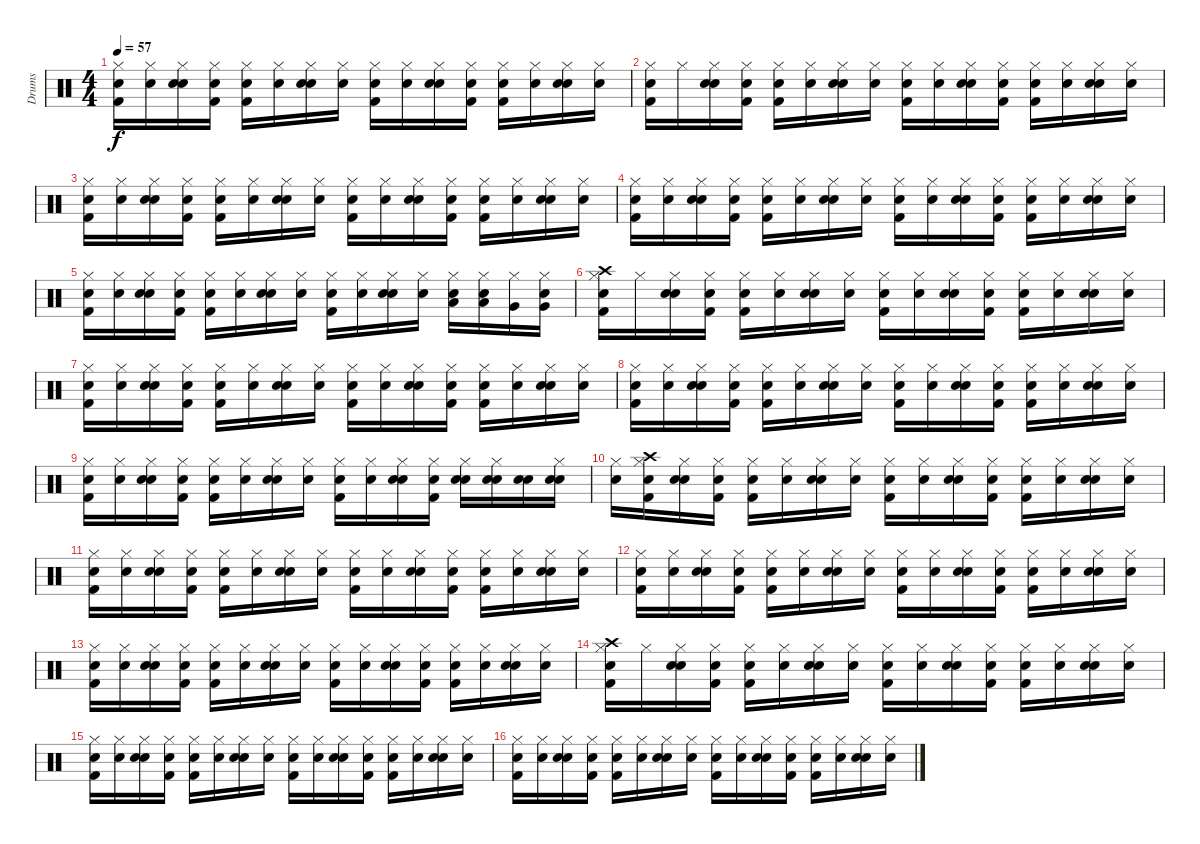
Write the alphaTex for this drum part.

\track ("Drums" "Drums") {instrument percussion}
\staff {score}
\articulation defaults
\ts (4 4)
\tempo 57
\clef neutral
\ks c
("Snare (hit)" "Kick (hit) 2" "Hi-Hat (closed)").16{dy f} ("Snare (hit)" "Hi-Hat (closed)").16 ("Snare (hit)" "Snare (hit) 2" "Hi-Hat (closed)").16 ("Snare (hit)" "Kick (hit) 2" "Hi-Hat (closed)").16 ("Snare (hit)" "Hi-Hat (closed)" "Kick (hit) 2").16 ("Snare (hit)" "Hi-Hat (closed)").16 ("Snare (hit)" "Snare (hit) 2" "Hi-Hat (closed)").16 ("Snare (hit)" "Hi-Hat (closed)").16 ("Snare (hit)" "Kick (hit) 2" "Hi-Hat (closed)").16 ("Snare (hit)" "Hi-Hat (closed)").16 ("Snare (hit)" "Snare (hit) 2" "Hi-Hat (closed)").16 ("Snare (hit)" "Kick (hit) 2" "Hi-Hat (closed)").16 ("Snare (hit)" "Kick (hit) 2" "Hi-Hat (closed)").16 ("Snare (hit)" "Hi-Hat (closed)").16 ("Snare (hit)" "Snare (hit) 2" "Hi-Hat (closed)").16 ("Snare (hit)" "Hi-Hat (closed)").16 |
("Snare (hit)" "Kick (hit) 2" "Hi-Hat (closed)").16 "Hi-Hat (closed)".16 ("Snare (hit)" "Snare (hit) 2" "Hi-Hat (closed)").16 ("Snare (hit)" "Kick (hit) 2" "Hi-Hat (closed)").16 ("Snare (hit)" "Hi-Hat (closed)" "Kick (hit) 2").16 ("Snare (hit)" "Hi-Hat (closed)").16 ("Snare (hit)" "Snare (hit) 2" "Hi-Hat (closed)").16 ("Snare (hit)" "Hi-Hat (closed)").16 ("Snare (hit)" "Kick (hit) 2" "Hi-Hat (closed)").16 ("Snare (hit)" "Hi-Hat (closed)").16 ("Snare (hit)" "Snare (hit) 2" "Hi-Hat (closed)").16 ("Snare (hit)" "Kick (hit) 2" "Hi-Hat (closed)").16 ("Snare (hit)" "Kick (hit) 2" "Hi-Hat (closed)").16 ("Snare (hit)" "Hi-Hat (closed)").16 ("Snare (hit)" "Snare (hit) 2" "Hi-Hat (closed)").16 ("Snare (hit)" "Hi-Hat (closed)").16 |
("Snare (hit)" "Kick (hit) 2" "Hi-Hat (closed)").16 ("Snare (hit)" "Hi-Hat (closed)").16 ("Snare (hit)" "Snare (hit) 2" "Hi-Hat (closed)").16 ("Snare (hit)" "Kick (hit) 2" "Hi-Hat (closed)").16 ("Snare (hit)" "Hi-Hat (closed)" "Kick (hit) 2").16 ("Snare (hit)" "Hi-Hat (closed)").16 ("Snare (hit)" "Snare (hit) 2" "Hi-Hat (closed)").16 ("Snare (hit)" "Hi-Hat (closed)").16 ("Snare (hit)" "Kick (hit) 2" "Hi-Hat (closed)").16 ("Snare (hit)" "Hi-Hat (closed)").16 ("Snare (hit)" "Snare (hit) 2" "Hi-Hat (closed)").16 ("Snare (hit)" "Kick (hit) 2" "Hi-Hat (closed)").16 ("Snare (hit)" "Kick (hit) 2" "Hi-Hat (closed)").16 ("Snare (hit)" "Hi-Hat (closed)").16 ("Snare (hit)" "Snare (hit) 2" "Hi-Hat (closed)").16 ("Snare (hit)" "Hi-Hat (closed)").16 |
("Snare (hit)" "Kick (hit) 2" "Hi-Hat (closed)").16 ("Snare (hit)" "Hi-Hat (closed)").16 ("Snare (hit)" "Snare (hit) 2" "Hi-Hat (closed)").16 ("Snare (hit)" "Kick (hit) 2" "Hi-Hat (closed)").16 ("Snare (hit)" "Hi-Hat (closed)" "Kick (hit) 2").16 ("Snare (hit)" "Hi-Hat (closed)").16 ("Snare (hit)" "Snare (hit) 2" "Hi-Hat (closed)").16 ("Snare (hit)" "Hi-Hat (closed)").16 ("Snare (hit)" "Kick (hit) 2" "Hi-Hat (closed)").16 ("Snare (hit)" "Hi-Hat (closed)").16 ("Snare (hit)" "Snare (hit) 2" "Hi-Hat (closed)").16 ("Snare (hit)" "Kick (hit) 2" "Hi-Hat (closed)").16 ("Snare (hit)" "Kick (hit) 2" "Hi-Hat (closed)").16 ("Snare (hit)" "Hi-Hat (closed)").16 ("Snare (hit)" "Snare (hit) 2" "Hi-Hat (closed)").16 ("Snare (hit)" "Hi-Hat (closed)").16 |
("Snare (hit)" "Kick (hit) 2" "Hi-Hat (closed)").16 ("Snare (hit)" "Hi-Hat (closed)").16 ("Snare (hit)" "Snare (hit) 2" "Hi-Hat (closed)").16 ("Snare (hit)" "Kick (hit) 2" "Hi-Hat (closed)").16 ("Snare (hit)" "Hi-Hat (closed)" "Kick (hit) 2").16 ("Snare (hit)" "Hi-Hat (closed)").16 ("Snare (hit)" "Snare (hit) 2" "Hi-Hat (closed)").16 ("Snare (hit)" "Hi-Hat (closed)").16 ("Snare (hit)" "Kick (hit) 2" "Hi-Hat (closed)").16 ("Snare (hit)" "Hi-Hat (closed)").16 ("Snare (hit)" "Snare (hit) 2" "Hi-Hat (closed)").16 ("Snare (hit)" "Hi-Hat (closed)").16 ("Snare (hit)" "Low Tom (hit)" "Hi-Hat (closed)").16 ("Snare (hit)" "Hi-Hat (closed)" "Low Tom (hit)").16 ("Very Low Tom (hit)" "Hi-Hat (closed)").16 ("Snare (hit)" "Very Low Tom (hit)" "Hi-Hat (closed)").16 |
("Snare (hit)" "Kick (hit) 2" "Crash high (hit)" "Hi-Hat (closed)").16 "Hi-Hat (closed)".16 ("Snare (hit)" "Snare (hit) 2" "Hi-Hat (closed)").16 ("Snare (hit)" "Kick (hit) 2" "Hi-Hat (closed)").16 ("Snare (hit)" "Hi-Hat (closed)" "Kick (hit) 2").16 ("Snare (hit)" "Hi-Hat (closed)").16 ("Snare (hit)" "Snare (hit) 2" "Hi-Hat (closed)").16 ("Snare (hit)" "Hi-Hat (closed)").16 ("Snare (hit)" "Kick (hit) 2" "Hi-Hat (closed)").16 ("Snare (hit)" "Hi-Hat (closed)").16 ("Snare (hit)" "Snare (hit) 2" "Hi-Hat (closed)").16 ("Snare (hit)" "Kick (hit) 2" "Hi-Hat (closed)").16 ("Snare (hit)" "Kick (hit) 2" "Hi-Hat (closed)").16 ("Snare (hit)" "Hi-Hat (closed)").16 ("Snare (hit)" "Snare (hit) 2" "Hi-Hat (closed)").16 ("Snare (hit)" "Hi-Hat (closed)").16 |
("Snare (hit)" "Kick (hit) 2" "Hi-Hat (closed)").16 ("Snare (hit)" "Hi-Hat (closed)").16 ("Snare (hit)" "Snare (hit) 2" "Hi-Hat (closed)").16 ("Snare (hit)" "Kick (hit) 2" "Hi-Hat (closed)").16 ("Snare (hit)" "Hi-Hat (closed)" "Kick (hit) 2").16 ("Snare (hit)" "Hi-Hat (closed)").16 ("Snare (hit)" "Snare (hit) 2" "Hi-Hat (closed)").16 ("Snare (hit)" "Hi-Hat (closed)").16 ("Snare (hit)" "Kick (hit) 2" "Hi-Hat (closed)").16 ("Snare (hit)" "Hi-Hat (closed)").16 ("Snare (hit)" "Snare (hit) 2" "Hi-Hat (closed)").16 ("Snare (hit)" "Kick (hit) 2" "Hi-Hat (closed)").16 ("Snare (hit)" "Kick (hit) 2" "Hi-Hat (closed)").16 ("Snare (hit)" "Hi-Hat (closed)").16 ("Snare (hit)" "Snare (hit) 2" "Hi-Hat (closed)").16 ("Snare (hit)" "Hi-Hat (closed)").16 |
("Snare (hit)" "Kick (hit) 2" "Hi-Hat (closed)").16 ("Snare (hit)" "Hi-Hat (closed)").16 ("Snare (hit)" "Snare (hit) 2" "Hi-Hat (closed)").16 ("Snare (hit)" "Kick (hit) 2" "Hi-Hat (closed)").16 ("Snare (hit)" "Hi-Hat (closed)" "Kick (hit) 2").16 ("Snare (hit)" "Hi-Hat (closed)").16 ("Snare (hit)" "Snare (hit) 2" "Hi-Hat (closed)").16 ("Snare (hit)" "Hi-Hat (closed)").16 ("Snare (hit)" "Kick (hit) 2" "Hi-Hat (closed)").16 ("Snare (hit)" "Hi-Hat (closed)").16 ("Snare (hit)" "Snare (hit) 2" "Hi-Hat (closed)").16 ("Snare (hit)" "Kick (hit) 2" "Hi-Hat (closed)").16 ("Snare (hit)" "Kick (hit) 2" "Hi-Hat (closed)").16 ("Snare (hit)" "Hi-Hat (closed)").16 ("Snare (hit)" "Snare (hit) 2" "Hi-Hat (closed)").16 ("Snare (hit)" "Hi-Hat (closed)").16 |
("Snare (hit)" "Kick (hit) 2" "Hi-Hat (closed)").16 ("Snare (hit)" "Hi-Hat (closed)").16 ("Snare (hit)" "Snare (hit) 2" "Hi-Hat (closed)").16 ("Snare (hit)" "Kick (hit) 2" "Hi-Hat (closed)").16 ("Snare (hit)" "Hi-Hat (closed)" "Kick (hit) 2").16 ("Snare (hit)" "Hi-Hat (closed)").16 ("Snare (hit)" "Snare (hit) 2" "Hi-Hat (closed)").16 ("Snare (hit)" "Hi-Hat (closed)").16 ("Snare (hit)" "Kick (hit) 2" "Hi-Hat (closed)").16 ("Snare (hit)" "Hi-Hat (closed)").16 ("Snare (hit)" "Snare (hit) 2" "Hi-Hat (closed)").16 ("Snare (hit)" "Kick (hit) 2" "Hi-Hat (closed)").16 ("Snare (hit)" "Snare (hit) 2" "Hi-Hat (closed)").16 ("Snare (hit)" "Snare (hit) 2" "Hi-Hat (closed)").16 ("Snare (hit)" "Snare (hit) 2").16 ("Snare (hit)" "Hi-Hat (closed)" "Snare (hit) 2").16 |
("Snare (hit)" "Hi-Hat (closed)").16 ("Snare (hit)" "Kick (hit) 2" "Crash high (hit)" "Hi-Hat (closed)").16 ("Snare (hit)" "Snare (hit) 2" "Hi-Hat (closed)").16 ("Snare (hit)" "Kick (hit) 2" "Hi-Hat (closed)").16 ("Snare (hit)" "Hi-Hat (closed)" "Kick (hit) 2").16 ("Snare (hit)" "Hi-Hat (closed)").16 ("Snare (hit)" "Snare (hit) 2" "Hi-Hat (closed)").16 ("Snare (hit)" "Hi-Hat (closed)").16 ("Snare (hit)" "Kick (hit) 2" "Hi-Hat (closed)").16 ("Snare (hit)" "Hi-Hat (closed)").16 ("Snare (hit)" "Snare (hit) 2" "Hi-Hat (closed)").16 ("Snare (hit)" "Kick (hit) 2" "Hi-Hat (closed)").16 ("Snare (hit)" "Kick (hit) 2" "Hi-Hat (closed)").16 ("Snare (hit)" "Hi-Hat (closed)").16 ("Snare (hit)" "Snare (hit) 2" "Hi-Hat (closed)").16 ("Snare (hit)" "Hi-Hat (closed)").16 |
("Snare (hit)" "Kick (hit) 2" "Hi-Hat (closed)").16 ("Snare (hit)" "Hi-Hat (closed)").16 ("Snare (hit)" "Snare (hit) 2" "Hi-Hat (closed)").16 ("Snare (hit)" "Kick (hit) 2" "Hi-Hat (closed)").16 ("Snare (hit)" "Hi-Hat (closed)" "Kick (hit) 2").16 ("Snare (hit)" "Hi-Hat (closed)").16 ("Snare (hit)" "Snare (hit) 2" "Hi-Hat (closed)").16 ("Snare (hit)" "Hi-Hat (closed)").16 ("Snare (hit)" "Kick (hit) 2" "Hi-Hat (closed)").16 ("Snare (hit)" "Hi-Hat (closed)").16 ("Snare (hit)" "Snare (hit) 2" "Hi-Hat (closed)").16 ("Snare (hit)" "Kick (hit) 2" "Hi-Hat (closed)").16 ("Snare (hit)" "Kick (hit) 2" "Hi-Hat (closed)").16 ("Snare (hit)" "Hi-Hat (closed)").16 ("Snare (hit)" "Snare (hit) 2" "Hi-Hat (closed)").16 ("Snare (hit)" "Hi-Hat (closed)").16 |
("Snare (hit)" "Kick (hit) 2" "Hi-Hat (closed)").16 ("Snare (hit)" "Hi-Hat (closed)").16 ("Snare (hit)" "Snare (hit) 2" "Hi-Hat (closed)").16 ("Snare (hit)" "Kick (hit) 2" "Hi-Hat (closed)").16 ("Snare (hit)" "Hi-Hat (closed)" "Kick (hit) 2").16 ("Snare (hit)" "Hi-Hat (closed)").16 ("Snare (hit)" "Snare (hit) 2" "Hi-Hat (closed)").16 ("Snare (hit)" "Hi-Hat (closed)").16 ("Snare (hit)" "Kick (hit) 2" "Hi-Hat (closed)").16 ("Snare (hit)" "Hi-Hat (closed)").16 ("Snare (hit)" "Snare (hit) 2" "Hi-Hat (closed)").16 ("Snare (hit)" "Kick (hit) 2" "Hi-Hat (closed)").16 ("Snare (hit)" "Kick (hit) 2" "Hi-Hat (closed)").16 ("Snare (hit)" "Hi-Hat (closed)").16 ("Snare (hit)" "Snare (hit) 2" "Hi-Hat (closed)").16 ("Snare (hit)" "Hi-Hat (closed)").16 |
("Snare (hit)" "Kick (hit) 2" "Hi-Hat (closed)").16 ("Snare (hit)" "Hi-Hat (closed)").16 ("Snare (hit)" "Snare (hit) 2" "Hi-Hat (closed)").16 ("Snare (hit)" "Kick (hit) 2" "Hi-Hat (closed)").16 ("Snare (hit)" "Hi-Hat (closed)" "Kick (hit) 2").16 ("Snare (hit)" "Hi-Hat (closed)").16 ("Snare (hit)" "Snare (hit) 2" "Hi-Hat (closed)").16 ("Snare (hit)" "Hi-Hat (closed)").16 ("Snare (hit)" "Kick (hit) 2" "Hi-Hat (closed)").16 ("Snare (hit)" "Hi-Hat (closed)").16 ("Snare (hit)" "Snare (hit) 2" "Hi-Hat (closed)").16 ("Snare (hit)" "Kick (hit) 2" "Hi-Hat (closed)").16 ("Snare (hit)" "Kick (hit) 2" "Hi-Hat (closed)").16 ("Snare (hit)" "Hi-Hat (closed)").16 ("Snare (hit)" "Snare (hit) 2" "Hi-Hat (closed)").16 ("Snare (hit)" "Hi-Hat (closed)").16 |
("Snare (hit)" "Kick (hit) 2" "Crash high (hit)" "Hi-Hat (closed)").16 "Hi-Hat (closed)".16 ("Snare (hit)" "Snare (hit) 2" "Hi-Hat (closed)").16 ("Snare (hit)" "Kick (hit) 2" "Hi-Hat (closed)").16 ("Snare (hit)" "Hi-Hat (closed)" "Kick (hit) 2").16 ("Snare (hit)" "Hi-Hat (closed)").16 ("Snare (hit)" "Snare (hit) 2" "Hi-Hat (closed)").16 ("Snare (hit)" "Hi-Hat (closed)").16 ("Snare (hit)" "Kick (hit) 2" "Hi-Hat (closed)").16 ("Snare (hit)" "Hi-Hat (closed)").16 ("Snare (hit)" "Snare (hit) 2" "Hi-Hat (closed)").16 ("Snare (hit)" "Kick (hit) 2" "Hi-Hat (closed)").16 ("Snare (hit)" "Kick (hit) 2" "Hi-Hat (closed)").16 ("Snare (hit)" "Hi-Hat (closed)").16 ("Snare (hit)" "Snare (hit) 2" "Hi-Hat (closed)").16 ("Snare (hit)" "Hi-Hat (closed)").16 |
("Snare (hit)" "Kick (hit) 2" "Hi-Hat (closed)").16 ("Snare (hit)" "Hi-Hat (closed)").16 ("Snare (hit)" "Snare (hit) 2" "Hi-Hat (closed)").16 ("Snare (hit)" "Kick (hit) 2" "Hi-Hat (closed)").16 ("Snare (hit)" "Hi-Hat (closed)" "Kick (hit) 2").16 ("Snare (hit)" "Hi-Hat (closed)").16 ("Snare (hit)" "Snare (hit) 2" "Hi-Hat (closed)").16 ("Snare (hit)" "Hi-Hat (closed)").16 ("Snare (hit)" "Kick (hit) 2" "Hi-Hat (closed)").16 ("Snare (hit)" "Hi-Hat (closed)").16 ("Snare (hit)" "Snare (hit) 2" "Hi-Hat (closed)").16 ("Snare (hit)" "Kick (hit) 2" "Hi-Hat (closed)").16 ("Snare (hit)" "Kick (hit) 2" "Hi-Hat (closed)").16 ("Snare (hit)" "Hi-Hat (closed)").16 ("Snare (hit)" "Snare (hit) 2" "Hi-Hat (closed)").16 ("Snare (hit)" "Hi-Hat (closed)").16 |
("Snare (hit)" "Kick (hit) 2" "Hi-Hat (closed)").16 ("Snare (hit)" "Hi-Hat (closed)").16 ("Snare (hit)" "Snare (hit) 2" "Hi-Hat (closed)").16 ("Snare (hit)" "Kick (hit) 2" "Hi-Hat (closed)").16 ("Snare (hit)" "Hi-Hat (closed)" "Kick (hit) 2").16 ("Snare (hit)" "Hi-Hat (closed)").16 ("Snare (hit)" "Snare (hit) 2" "Hi-Hat (closed)").16 ("Snare (hit)" "Hi-Hat (closed)").16 ("Snare (hit)" "Kick (hit) 2" "Hi-Hat (closed)").16 ("Snare (hit)" "Hi-Hat (closed)").16 ("Snare (hit)" "Snare (hit) 2" "Hi-Hat (closed)").16 ("Snare (hit)" "Kick (hit) 2" "Hi-Hat (closed)").16 ("Snare (hit)" "Kick (hit) 2" "Hi-Hat (closed)").16 ("Snare (hit)" "Hi-Hat (closed)").16 ("Snare (hit)" "Snare (hit) 2" "Hi-Hat (closed)").16 ("Snare (hit)" "Hi-Hat (closed)").16
